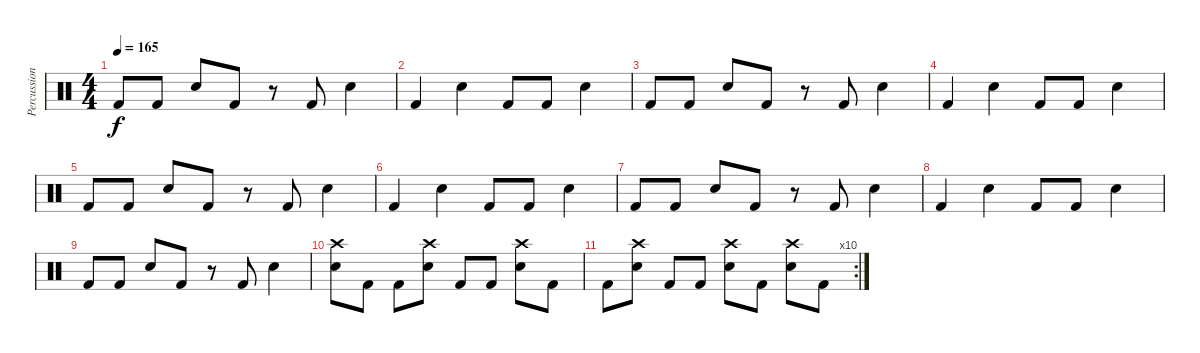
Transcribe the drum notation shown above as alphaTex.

\track ("Percussion" "Percussion") {instrument percussion}
\staff {score}
\articulation defaults
\ts (4 4)
\tempo 165
\clef neutral
\ks c "Kick (hit) 2".8{dy f} "Kick (hit) 2".8 "Snare (hit) 2".8 "Kick (hit) 2".8
r.8 "Kick (hit) 2".8 "Snare (hit) 2".4 |
"Kick (hit) 2".4 "Snare (hit) 2".4 "Kick (hit) 2".8 "Kick (hit) 2".8 "Snare (hit) 2".4 |
"Kick (hit) 2".8 "Kick (hit) 2".8 "Snare (hit) 2".8 "Kick (hit) 2".8 r.8 "Kick (hit) 2".8 "Snare (hit) 2".4 |
"Kick (hit) 2".4 "Snare (hit) 2".4 "Kick (hit) 2".8 "Kick (hit) 2".8 "Snare (hit) 2".4 |
"Kick (hit) 2".8 "Kick (hit) 2".8 "Snare (hit) 2".8 "Kick (hit) 2".8 r.8 "Kick (hit) 2".8 "Snare (hit) 2".4 |
"Kick (hit) 2".4 "Snare (hit) 2".4 "Kick (hit) 2".8 "Kick (hit) 2".8 "Snare (hit) 2".4 |
"Kick (hit) 2".8 "Kick (hit) 2".8 "Snare (hit) 2".8 "Kick (hit) 2".8 r.8 "Kick (hit) 2".8 "Snare (hit) 2".4 |
"Kick (hit) 2".4 "Snare (hit) 2".4 "Kick (hit) 2".8 "Kick (hit) 2".8 "Snare (hit) 2".4 |
"Kick (hit) 2".8 "Kick (hit) 2".8 "Snare (hit) 2".8 "Kick (hit) 2".8 r.8 "Kick (hit) 2".8 "Snare (hit) 2".4 |
("Crash high (hit)" "Snare (hit) 2").8 "Kick (hit) 2".8 "Kick (hit) 2".8 ("Crash high (hit)" "Snare (hit) 2").8 "Kick (hit) 2".8 "Kick (hit) 2".8 ("Crash high (hit)" "Snare (hit) 2").8 "Kick (hit) 2".8 |
\rc 10 "Kick (hit) 2".8
("Crash high (hit)" "Snare (hit) 2").8 "Kick (hit) 2".8 "Kick (hit) 2".8 ("Crash high (hit)" "Snare (hit) 2").8 "Kick (hit) 2".8 ("Crash high (hit)" "Snare (hit) 2").8 "Kick (hit) 2".8
